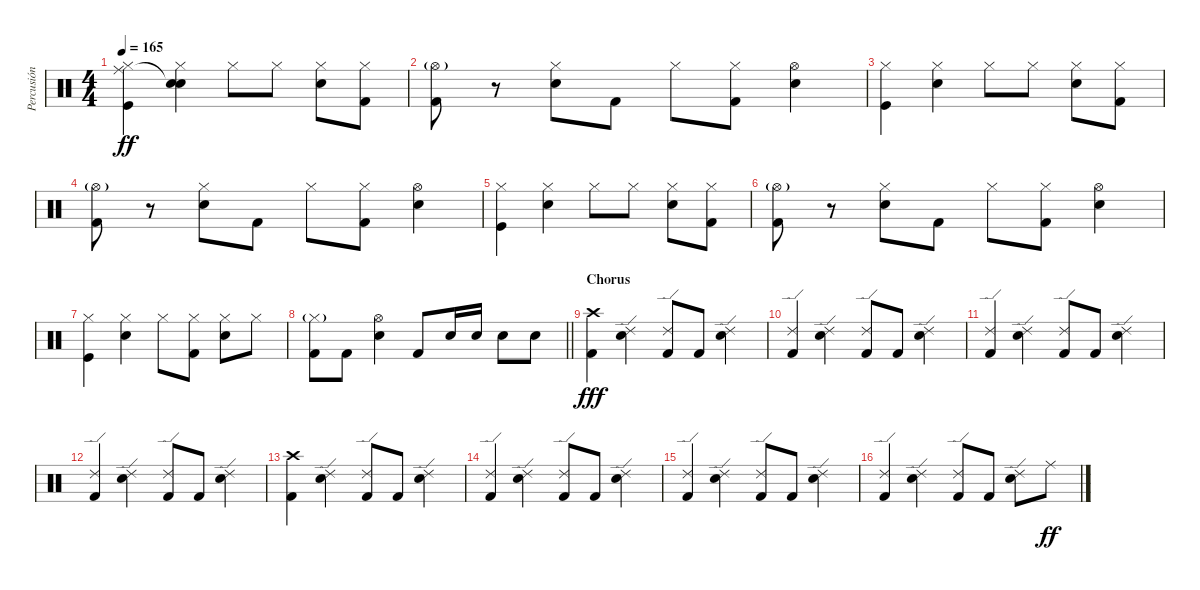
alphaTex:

\track ("Percusión" "Percusión") {instrument percussion}
\staff {score}
\articulation defaults
\ts (4 4)
\tempo 165
\clef neutral
\ks c
("Kick (hit)" "Ride (middle)" "Hi-Hat (closed)").4{dy ff} ("Electric Snare (hit)" "Snare (hit)"{t} "Hi-Hat (closed)").4 "Hi-Hat (closed)".8 "Hi-Hat (closed)".8 ("Electric Snare (hit)" "Hi-Hat (closed)").8 ("Kick (hit) 2" "Hi-Hat (closed)").8 |
("Kick (hit) 2" "Hi-Hat (open)"{g}).8 r.8 ("Electric Snare (hit)" "Hi-Hat (closed)").8 "Kick (hit) 2".8 "Hi-Hat (closed)".8 ("Kick (hit) 2" "Hi-Hat (closed)").8 ("Electric Snare (hit)" "Hi-Hat (open)").4 |
("Kick (hit)" "Hi-Hat (closed)").4 ("Electric Snare (hit)" "Hi-Hat (closed)").4 "Hi-Hat (closed)".8 "Hi-Hat (closed)".8 ("Electric Snare (hit)" "Hi-Hat (closed)").8 ("Kick (hit) 2" "Hi-Hat (closed)").8 |
("Kick (hit) 2" "Hi-Hat (open)"{g}).8 r.8 ("Electric Snare (hit)" "Hi-Hat (closed)").8 "Kick (hit) 2".8 "Hi-Hat (closed)".8 ("Kick (hit) 2" "Hi-Hat (closed)").8 ("Electric Snare (hit)" "Hi-Hat (open)").4 |
("Kick (hit)" "Hi-Hat (closed)").4 ("Electric Snare (hit)" "Hi-Hat (closed)").4 "Hi-Hat (closed)".8 "Hi-Hat (closed)".8 ("Electric Snare (hit)" "Hi-Hat (closed)").8 ("Kick (hit) 2" "Hi-Hat (closed)").8 |
("Kick (hit) 2" "Hi-Hat (open)"{g}).8 r.8 ("Electric Snare (hit)" "Hi-Hat (closed)").8 "Kick (hit) 2".8 "Hi-Hat (closed)".8 ("Kick (hit) 2" "Hi-Hat (closed)").8 ("Electric Snare (hit)" "Hi-Hat (open)").4 |
("Kick (hit)" "Hi-Hat (closed)").4 ("Electric Snare (hit)" "Hi-Hat (closed)").4 "Hi-Hat (closed)".8 ("Kick (hit) 2" "Hi-Hat (closed)").8 ("Electric Snare (hit)" "Hi-Hat (closed)").8 "Hi-Hat (closed)".8 |
\barLineRight lightlight
("Kick (hit) 2" "Hi-Hat (closed)"{g}).8 "Kick (hit) 2".8 ("Electric Snare (hit)" "Hi-Hat (open)").4 "Kick (hit) 2".8 "Electric Snare (hit)".16 "Electric Snare (hit)".16 "Electric Snare (hit)".8 "Electric Snare (hit)".8 |
\section ("" "Chorus")
("Kick (hit) 2" "Crash high (hit)").4{dy fff} ("Electric Snare (hit)" "Ride (edge) 2").4 ("Kick (hit) 2" "Ride (edge) 2").8 "Kick (hit) 2".8 ("Electric Snare (hit)" "Ride (edge) 2").4 |
("Kick (hit) 2" "Ride (edge) 2").4 ("Electric Snare (hit)" "Ride (edge) 2").4 ("Kick (hit) 2" "Ride (edge) 2").8 "Kick (hit) 2".8 ("Electric Snare (hit)" "Ride (edge) 2").4 |
("Kick (hit) 2" "Ride (edge) 2").4 ("Electric Snare (hit)" "Ride (edge) 2").4 ("Kick (hit) 2" "Ride (edge) 2").8 "Kick (hit) 2".8 ("Electric Snare (hit)" "Ride (edge) 2").4 |
("Kick (hit) 2" "Ride (edge) 2").4 ("Electric Snare (hit)" "Ride (edge) 2").4 ("Kick (hit) 2" "Ride (edge) 2").8 "Kick (hit) 2".8 ("Electric Snare (hit)" "Ride (edge) 2").4 |
("Kick (hit) 2" "Crash high (hit)").4 ("Electric Snare (hit)" "Ride (edge) 2").4 ("Kick (hit) 2" "Ride (edge) 2").8 "Kick (hit) 2".8 ("Electric Snare (hit)" "Ride (edge) 2").4 |
("Kick (hit) 2" "Ride (edge) 2").4 ("Electric Snare (hit)" "Ride (edge) 2").4 ("Kick (hit) 2" "Ride (edge) 2").8 "Kick (hit) 2".8 ("Electric Snare (hit)" "Ride (edge) 2").4 |
("Kick (hit) 2" "Ride (edge) 2").4 ("Electric Snare (hit)" "Ride (edge) 2").4 ("Kick (hit) 2" "Ride (edge) 2").8 "Kick (hit) 2".8 ("Electric Snare (hit)" "Ride (edge) 2").4 |
("Kick (hit) 2" "Ride (edge) 2").4 ("Electric Snare (hit)" "Ride (edge) 2").4 ("Kick (hit) 2" "Ride (edge) 2").8 "Kick (hit) 2".8 ("Electric Snare (hit)" "Ride (edge) 2").8 "Ride (middle)".8{dy ff}
